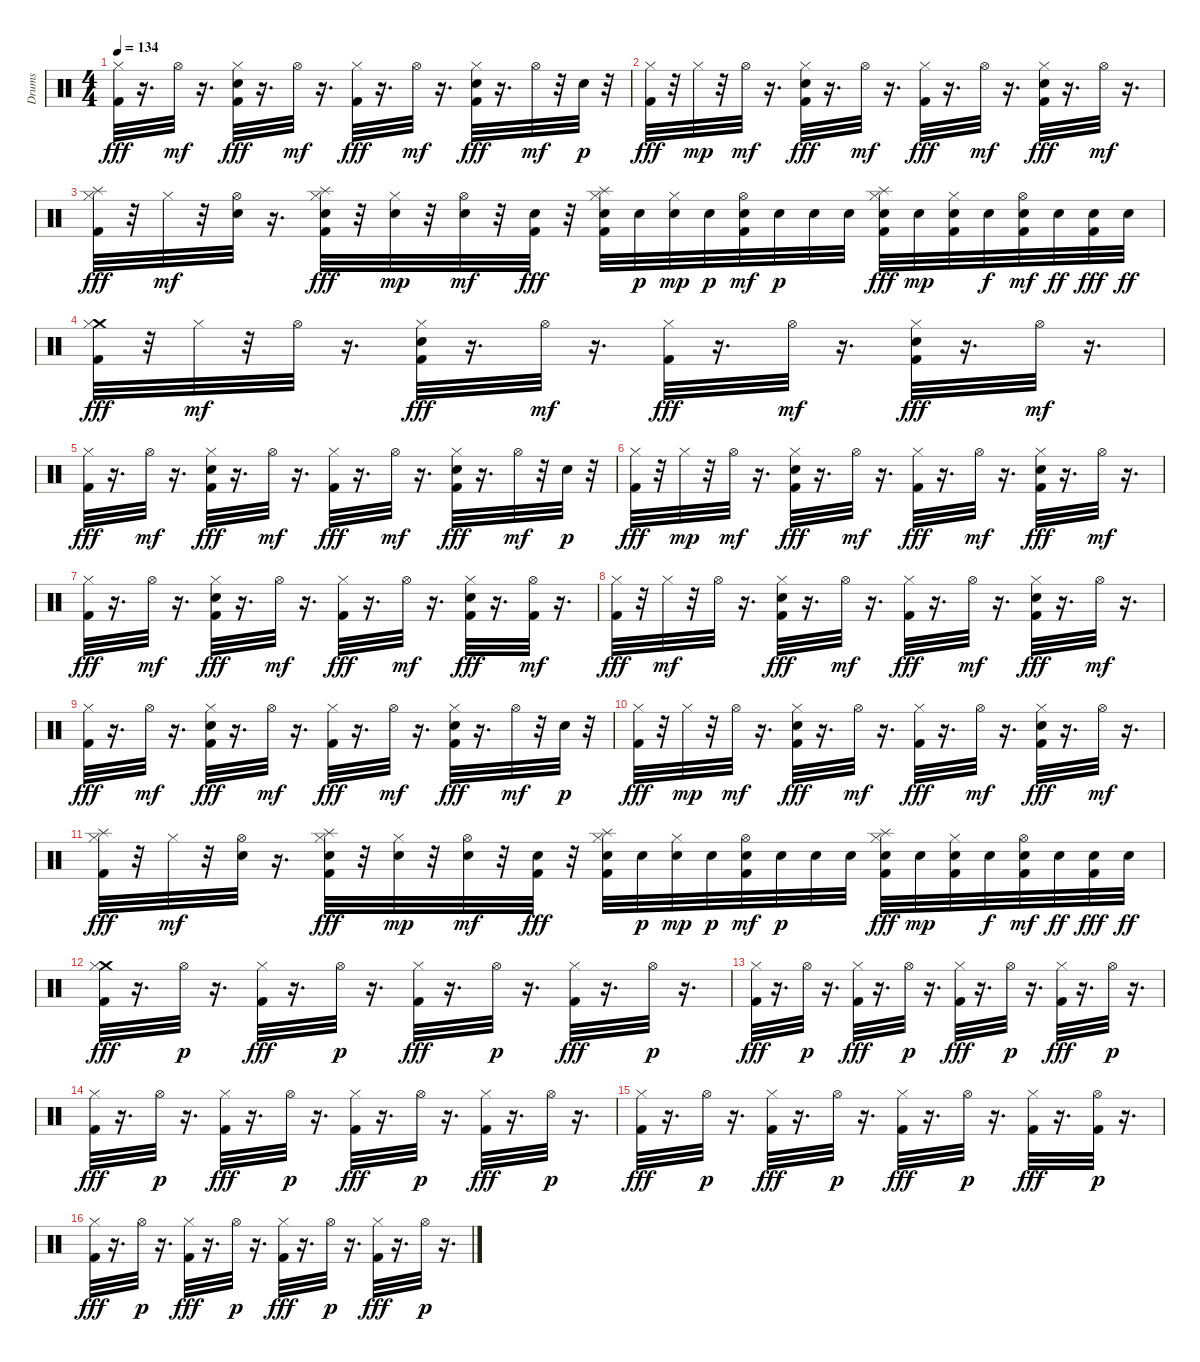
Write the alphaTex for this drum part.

\track ("Drums" "Drums") {instrument percussion}
\staff {score}
\articulation defaults
\ts (4 4)
\tempo 134
\clef neutral
\ks c
("Kick (hit) 2" "Hi-Hat (closed)").32{dy fff} r.16{d} "Hi-Hat (open)".32{dy mf} r.16{d} ("Electric Snare (hit)" "Kick (hit) 2" "Hi-Hat (closed)").32{dy fff} r.16{d} "Hi-Hat (open)".32{dy mf} r.16{d} ("Kick (hit) 2" "Hi-Hat (closed)").32{dy fff} r.16{d} "Hi-Hat (open)".32{dy mf} r.16{d} ("Electric Snare (hit)" "Kick (hit) 2" "Hi-Hat (closed)").32{dy fff} r.16{d} "Hi-Hat (open)".32{dy mf} r.32 "Electric Snare (hit)".32{dy p} r.32 |
("Kick (hit) 2" "Hi-Hat (closed)").32{dy fff} r.32 "Hi-Hat (closed)".32{dy mp} r.32 "Hi-Hat (open)".32{dy mf} r.16{d} ("Electric Snare (hit)" "Kick (hit) 2" "Hi-Hat (closed)").32{dy fff} r.16{d} "Hi-Hat (open)".32{dy mf} r.16{d} ("Kick (hit) 2" "Hi-Hat (closed)").32{dy fff} r.16{d} "Hi-Hat (open)".32{dy mf} r.16{d} ("Electric Snare (hit)" "Kick (hit) 2" "Hi-Hat (closed)").32{dy fff} r.16{d} "Hi-Hat (open)".32{dy mf} r.16{d} |
("Kick (hit) 2" "Hi-Hat (closed)" "Splash (hit)").32{dy fff} r.32 "Hi-Hat (closed)".32{dy mf} r.32 ("Electric Snare (hit)" "Hi-Hat (open)").32 r.16{d} ("Electric Snare (hit)" "Kick (hit) 2" "Hi-Hat (closed)" "Splash (hit)").32{dy fff} r.32 ("Electric Snare (hit)" "Hi-Hat (closed)").32{dy mp} r.32 ("Electric Snare (hit)" "Hi-Hat (open)").32{dy mf} r.32 ("Electric Snare (hit)" "Kick (hit) 2").32{dy fff} r.32 ("Electric Snare (hit)" "Kick (hit) 2" "Hi-Hat (closed)" "Splash (hit)").32 "Electric Snare (hit)".32{dy p} ("Electric Snare (hit)" "Hi-Hat (closed)").32{dy mp} "Electric Snare (hit)".32{dy p} ("Electric Snare (hit)" "Kick (hit) 2" "Hi-Hat (open)").32{dy mf} "Electric Snare (hit)".32{dy p} "Electric Snare (hit)".32 "Electric Snare (hit)".32 ("Electric Snare (hit)" "Kick (hit) 2" "Hi-Hat (closed)" "Splash (hit)").32{dy fff} "Electric Snare (hit)".32{dy mp} ("Electric Snare (hit)" "Kick (hit) 2" "Hi-Hat (closed)").32 "Electric Snare (hit)".32{dy f} ("Electric Snare (hit)" "Kick (hit) 2" "Hi-Hat (open)").32{dy mf} "Electric Snare (hit)".32{dy ff} ("Electric Snare (hit)" "Kick (hit) 2").32{dy fff} "Electric Snare (hit)".32{dy ff} |
("Crash medium (hit)" "Kick (hit) 2" "Hi-Hat (closed)").32{dy fff} r.32 "Hi-Hat (closed)".32{dy mf} r.32 "Hi-Hat (open)".32 r.16{d} ("Electric Snare (hit)" "Kick (hit) 2" "Hi-Hat (closed)").32{dy fff} r.16{d} "Hi-Hat (open)".32{dy mf} r.16{d} ("Kick (hit) 2" "Hi-Hat (closed)").32{dy fff} r.16{d} "Hi-Hat (open)".32{dy mf} r.16{d} ("Electric Snare (hit)" "Kick (hit) 2" "Hi-Hat (closed)").32{dy fff} r.16{d} "Hi-Hat (open)".32{dy mf} r.16{d} |
("Kick (hit) 2" "Hi-Hat (closed)").32{dy fff} r.16{d} "Hi-Hat (open)".32{dy mf} r.16{d} ("Electric Snare (hit)" "Kick (hit) 2" "Hi-Hat (closed)").32{dy fff} r.16{d} "Hi-Hat (open)".32{dy mf} r.16{d} ("Kick (hit) 2" "Hi-Hat (closed)").32{dy fff} r.16{d} "Hi-Hat (open)".32{dy mf} r.16{d} ("Electric Snare (hit)" "Kick (hit) 2" "Hi-Hat (closed)").32{dy fff} r.16{d} "Hi-Hat (open)".32{dy mf} r.32 "Electric Snare (hit)".32{dy p} r.32 |
("Kick (hit) 2" "Hi-Hat (closed)").32{dy fff} r.32 "Hi-Hat (closed)".32{dy mp} r.32 "Hi-Hat (open)".32{dy mf} r.16{d} ("Electric Snare (hit)" "Kick (hit) 2" "Hi-Hat (closed)").32{dy fff} r.16{d} "Hi-Hat (open)".32{dy mf} r.16{d} ("Kick (hit) 2" "Hi-Hat (closed)").32{dy fff} r.16{d} "Hi-Hat (open)".32{dy mf} r.16{d} ("Electric Snare (hit)" "Kick (hit) 2" "Hi-Hat (closed)").32{dy fff} r.16{d} "Hi-Hat (open)".32{dy mf} r.16{d} |
("Kick (hit) 2" "Hi-Hat (closed)").32{dy fff} r.16{d} "Hi-Hat (open)".32{dy mf} r.16{d} ("Electric Snare (hit)" "Kick (hit) 2" "Hi-Hat (closed)").32{dy fff} r.16{d} "Hi-Hat (open)".32{dy mf} r.16{d} ("Kick (hit) 2" "Hi-Hat (closed)").32{dy fff} r.16{d} "Hi-Hat (open)".32{dy mf} r.16{d} ("Electric Snare (hit)" "Kick (hit) 2" "Hi-Hat (closed)").32{dy fff} r.16{d} ("Kick (hit) 2" "Hi-Hat (open)").32{dy mf} r.16{d} |
("Kick (hit) 2" "Hi-Hat (closed)").32{dy fff} r.32 "Hi-Hat (closed)".32{dy mf} r.32 "Hi-Hat (open)".32 r.16{d} ("Electric Snare (hit)" "Kick (hit) 2" "Hi-Hat (closed)").32{dy fff} r.16{d} "Hi-Hat (open)".32{dy mf} r.16{d} ("Kick (hit) 2" "Hi-Hat (closed)").32{dy fff} r.16{d} "Hi-Hat (open)".32{dy mf} r.16{d} ("Electric Snare (hit)" "Kick (hit) 2" "Hi-Hat (closed)").32{dy fff} r.16{d} "Hi-Hat (open)".32{dy mf} r.16{d} |
("Kick (hit) 2" "Hi-Hat (closed)").32{dy fff} r.16{d} "Hi-Hat (open)".32{dy mf} r.16{d} ("Electric Snare (hit)" "Kick (hit) 2" "Hi-Hat (closed)").32{dy fff} r.16{d} "Hi-Hat (open)".32{dy mf} r.16{d} ("Kick (hit) 2" "Hi-Hat (closed)").32{dy fff} r.16{d} "Hi-Hat (open)".32{dy mf} r.16{d} ("Electric Snare (hit)" "Kick (hit) 2" "Hi-Hat (closed)").32{dy fff} r.16{d} "Hi-Hat (open)".32{dy mf} r.32 "Electric Snare (hit)".32{dy p} r.32 |
("Kick (hit) 2" "Hi-Hat (closed)").32{dy fff} r.32 "Hi-Hat (closed)".32{dy mp} r.32 "Hi-Hat (open)".32{dy mf} r.16{d} ("Electric Snare (hit)" "Kick (hit) 2" "Hi-Hat (closed)").32{dy fff} r.16{d} "Hi-Hat (open)".32{dy mf} r.16{d} ("Kick (hit) 2" "Hi-Hat (closed)").32{dy fff} r.16{d} "Hi-Hat (open)".32{dy mf} r.16{d} ("Electric Snare (hit)" "Kick (hit) 2" "Hi-Hat (closed)").32{dy fff} r.16{d} "Hi-Hat (open)".32{dy mf} r.16{d} |
("Kick (hit) 2" "Hi-Hat (closed)" "Splash (hit)").32{dy fff} r.32 "Hi-Hat (closed)".32{dy mf} r.32 ("Electric Snare (hit)" "Hi-Hat (open)").32 r.16{d} ("Electric Snare (hit)" "Kick (hit) 2" "Hi-Hat (closed)" "Splash (hit)").32{dy fff} r.32 ("Electric Snare (hit)" "Hi-Hat (closed)").32{dy mp} r.32 ("Electric Snare (hit)" "Hi-Hat (open)").32{dy mf} r.32 ("Electric Snare (hit)" "Kick (hit) 2").32{dy fff} r.32 ("Electric Snare (hit)" "Kick (hit) 2" "Hi-Hat (closed)" "Splash (hit)").32 "Electric Snare (hit)".32{dy p} ("Electric Snare (hit)" "Hi-Hat (closed)").32{dy mp} "Electric Snare (hit)".32{dy p} ("Electric Snare (hit)" "Kick (hit) 2" "Hi-Hat (open)").32{dy mf} "Electric Snare (hit)".32{dy p} "Electric Snare (hit)".32 "Electric Snare (hit)".32 ("Electric Snare (hit)" "Kick (hit) 2" "Hi-Hat (closed)" "Splash (hit)").32{dy fff} "Electric Snare (hit)".32{dy mp} ("Electric Snare (hit)" "Kick (hit) 2" "Hi-Hat (closed)").32 "Electric Snare (hit)".32{dy f} ("Electric Snare (hit)" "Kick (hit) 2" "Hi-Hat (open)").32{dy mf} "Electric Snare (hit)".32{dy ff} ("Electric Snare (hit)" "Kick (hit) 2").32{dy fff} "Electric Snare (hit)".32{dy ff} |
("Crash medium (hit)" "Kick (hit) 2" "Hi-Hat (closed)").32{dy fff} r.16{d} "Hi-Hat (open)".32{dy p} r.16{d} ("Kick (hit) 2" "Hi-Hat (closed)").32{dy fff} r.16{d} "Hi-Hat (open)".32{dy p} r.16{d} ("Kick (hit) 2" "Hi-Hat (closed)").32{dy fff} r.16{d} "Hi-Hat (open)".32{dy p} r.16{d} ("Kick (hit) 2" "Hi-Hat (closed)").32{dy fff} r.16{d} "Hi-Hat (open)".32{dy p} r.16{d} |
("Kick (hit) 2" "Hi-Hat (closed)").32{dy fff} r.16{d} "Hi-Hat (open)".32{dy p} r.16{d} ("Kick (hit) 2" "Hi-Hat (closed)").32{dy fff} r.16{d} "Hi-Hat (open)".32{dy p} r.16{d} ("Kick (hit) 2" "Hi-Hat (closed)").32{dy fff} r.16{d} "Hi-Hat (open)".32{dy p} r.16{d} ("Kick (hit) 2" "Hi-Hat (closed)").32{dy fff} r.16{d} "Hi-Hat (open)".32{dy p} r.16{d} |
("Kick (hit) 2" "Hi-Hat (closed)").32{dy fff} r.16{d} "Hi-Hat (open)".32{dy p} r.16{d} ("Kick (hit) 2" "Hi-Hat (closed)").32{dy fff} r.16{d} "Hi-Hat (open)".32{dy p} r.16{d} ("Kick (hit) 2" "Hi-Hat (closed)").32{dy fff} r.16{d} "Hi-Hat (open)".32{dy p} r.16{d} ("Kick (hit) 2" "Hi-Hat (closed)").32{dy fff} r.16{d} "Hi-Hat (open)".32{dy p} r.16{d} |
("Kick (hit) 2" "Hi-Hat (closed)").32{dy fff} r.16{d} "Hi-Hat (open)".32{dy p} r.16{d} ("Kick (hit) 2" "Hi-Hat (closed)").32{dy fff} r.16{d} "Hi-Hat (open)".32{dy p} r.16{d} ("Kick (hit) 2" "Hi-Hat (closed)").32{dy fff} r.16{d} "Hi-Hat (open)".32{dy p} r.16{d} ("Kick (hit) 2" "Hi-Hat (closed)").32{dy fff} r.16{d} ("Kick (hit) 2" "Hi-Hat (open)").32{dy p} r.16{d} |
("Kick (hit) 2" "Hi-Hat (closed)").32{dy fff} r.16{d} "Hi-Hat (open)".32{dy p} r.16{d} ("Kick (hit) 2" "Hi-Hat (closed)").32{dy fff} r.16{d} "Hi-Hat (open)".32{dy p} r.16{d} ("Kick (hit) 2" "Hi-Hat (closed)").32{dy fff} r.16{d} "Hi-Hat (open)".32{dy p} r.16{d} ("Kick (hit) 2" "Hi-Hat (closed)").32{dy fff} r.16{d} "Hi-Hat (open)".32{dy p} r.16{d}
